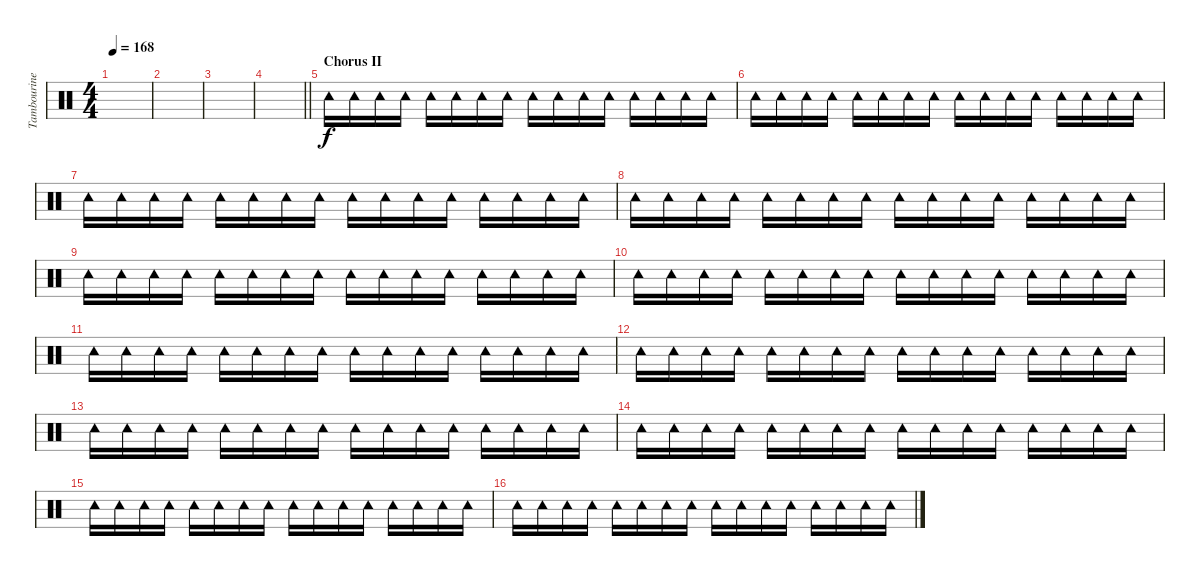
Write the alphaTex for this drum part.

\track ("Tambourine" "Tambourine") {instrument percussion}
\staff {score}
\articulation defaults
\ts (4 4)
\tempo 168
\clef neutral
\ks c
|
|
|
\barLineRight lightlight
|
\section ("" "Chorus II")
"Tambourine (hit)".16 "Tambourine (hit)".16 "Tambourine (hit)".16 "Tambourine (hit)".16 "Tambourine (hit)".16 "Tambourine (hit)".16 "Tambourine (hit)".16 "Tambourine (hit)".16 "Tambourine (hit)".16 "Tambourine (hit)".16 "Tambourine (hit)".16 "Tambourine (hit)".16 "Tambourine (hit)".16 "Tambourine (hit)".16 "Tambourine (hit)".16 "Tambourine (hit)".16 |
"Tambourine (hit)".16 "Tambourine (hit)".16 "Tambourine (hit)".16 "Tambourine (hit)".16 "Tambourine (hit)".16 "Tambourine (hit)".16 "Tambourine (hit)".16 "Tambourine (hit)".16 "Tambourine (hit)".16 "Tambourine (hit)".16 "Tambourine (hit)".16 "Tambourine (hit)".16 "Tambourine (hit)".16 "Tambourine (hit)".16 "Tambourine (hit)".16 "Tambourine (hit)".16 |
"Tambourine (hit)".16 "Tambourine (hit)".16 "Tambourine (hit)".16 "Tambourine (hit)".16 "Tambourine (hit)".16 "Tambourine (hit)".16 "Tambourine (hit)".16 "Tambourine (hit)".16 "Tambourine (hit)".16 "Tambourine (hit)".16 "Tambourine (hit)".16 "Tambourine (hit)".16 "Tambourine (hit)".16 "Tambourine (hit)".16 "Tambourine (hit)".16 "Tambourine (hit)".16 |
"Tambourine (hit)".16 "Tambourine (hit)".16 "Tambourine (hit)".16 "Tambourine (hit)".16 "Tambourine (hit)".16 "Tambourine (hit)".16 "Tambourine (hit)".16 "Tambourine (hit)".16 "Tambourine (hit)".16 "Tambourine (hit)".16 "Tambourine (hit)".16 "Tambourine (hit)".16 "Tambourine (hit)".16 "Tambourine (hit)".16 "Tambourine (hit)".16 "Tambourine (hit)".16 |
"Tambourine (hit)".16 "Tambourine (hit)".16 "Tambourine (hit)".16 "Tambourine (hit)".16 "Tambourine (hit)".16 "Tambourine (hit)".16 "Tambourine (hit)".16 "Tambourine (hit)".16 "Tambourine (hit)".16 "Tambourine (hit)".16 "Tambourine (hit)".16 "Tambourine (hit)".16 "Tambourine (hit)".16 "Tambourine (hit)".16 "Tambourine (hit)".16 "Tambourine (hit)".16 |
"Tambourine (hit)".16 "Tambourine (hit)".16 "Tambourine (hit)".16 "Tambourine (hit)".16 "Tambourine (hit)".16 "Tambourine (hit)".16 "Tambourine (hit)".16 "Tambourine (hit)".16 "Tambourine (hit)".16 "Tambourine (hit)".16 "Tambourine (hit)".16 "Tambourine (hit)".16 "Tambourine (hit)".16 "Tambourine (hit)".16 "Tambourine (hit)".16 "Tambourine (hit)".16 |
"Tambourine (hit)".16 "Tambourine (hit)".16 "Tambourine (hit)".16 "Tambourine (hit)".16 "Tambourine (hit)".16 "Tambourine (hit)".16 "Tambourine (hit)".16 "Tambourine (hit)".16 "Tambourine (hit)".16 "Tambourine (hit)".16 "Tambourine (hit)".16 "Tambourine (hit)".16 "Tambourine (hit)".16 "Tambourine (hit)".16 "Tambourine (hit)".16 "Tambourine (hit)".16 |
"Tambourine (hit)".16 "Tambourine (hit)".16 "Tambourine (hit)".16 "Tambourine (hit)".16 "Tambourine (hit)".16 "Tambourine (hit)".16 "Tambourine (hit)".16 "Tambourine (hit)".16 "Tambourine (hit)".16 "Tambourine (hit)".16 "Tambourine (hit)".16 "Tambourine (hit)".16 "Tambourine (hit)".16 "Tambourine (hit)".16 "Tambourine (hit)".16 "Tambourine (hit)".16 |
"Tambourine (hit)".16 "Tambourine (hit)".16 "Tambourine (hit)".16 "Tambourine (hit)".16 "Tambourine (hit)".16 "Tambourine (hit)".16 "Tambourine (hit)".16 "Tambourine (hit)".16 "Tambourine (hit)".16 "Tambourine (hit)".16 "Tambourine (hit)".16 "Tambourine (hit)".16 "Tambourine (hit)".16 "Tambourine (hit)".16 "Tambourine (hit)".16 "Tambourine (hit)".16 |
"Tambourine (hit)".16 "Tambourine (hit)".16 "Tambourine (hit)".16 "Tambourine (hit)".16 "Tambourine (hit)".16 "Tambourine (hit)".16 "Tambourine (hit)".16 "Tambourine (hit)".16 "Tambourine (hit)".16 "Tambourine (hit)".16 "Tambourine (hit)".16 "Tambourine (hit)".16 "Tambourine (hit)".16 "Tambourine (hit)".16 "Tambourine (hit)".16 "Tambourine (hit)".16 |
"Tambourine (hit)".16 "Tambourine (hit)".16 "Tambourine (hit)".16 "Tambourine (hit)".16 "Tambourine (hit)".16 "Tambourine (hit)".16 "Tambourine (hit)".16 "Tambourine (hit)".16 "Tambourine (hit)".16 "Tambourine (hit)".16 "Tambourine (hit)".16 "Tambourine (hit)".16 "Tambourine (hit)".16 "Tambourine (hit)".16 "Tambourine (hit)".16 "Tambourine (hit)".16 |
"Tambourine (hit)".16 "Tambourine (hit)".16 "Tambourine (hit)".16 "Tambourine (hit)".16 "Tambourine (hit)".16 "Tambourine (hit)".16 "Tambourine (hit)".16 "Tambourine (hit)".16 "Tambourine (hit)".16 "Tambourine (hit)".16 "Tambourine (hit)".16 "Tambourine (hit)".16 "Tambourine (hit)".16 "Tambourine (hit)".16 "Tambourine (hit)".16 "Tambourine (hit)".16
